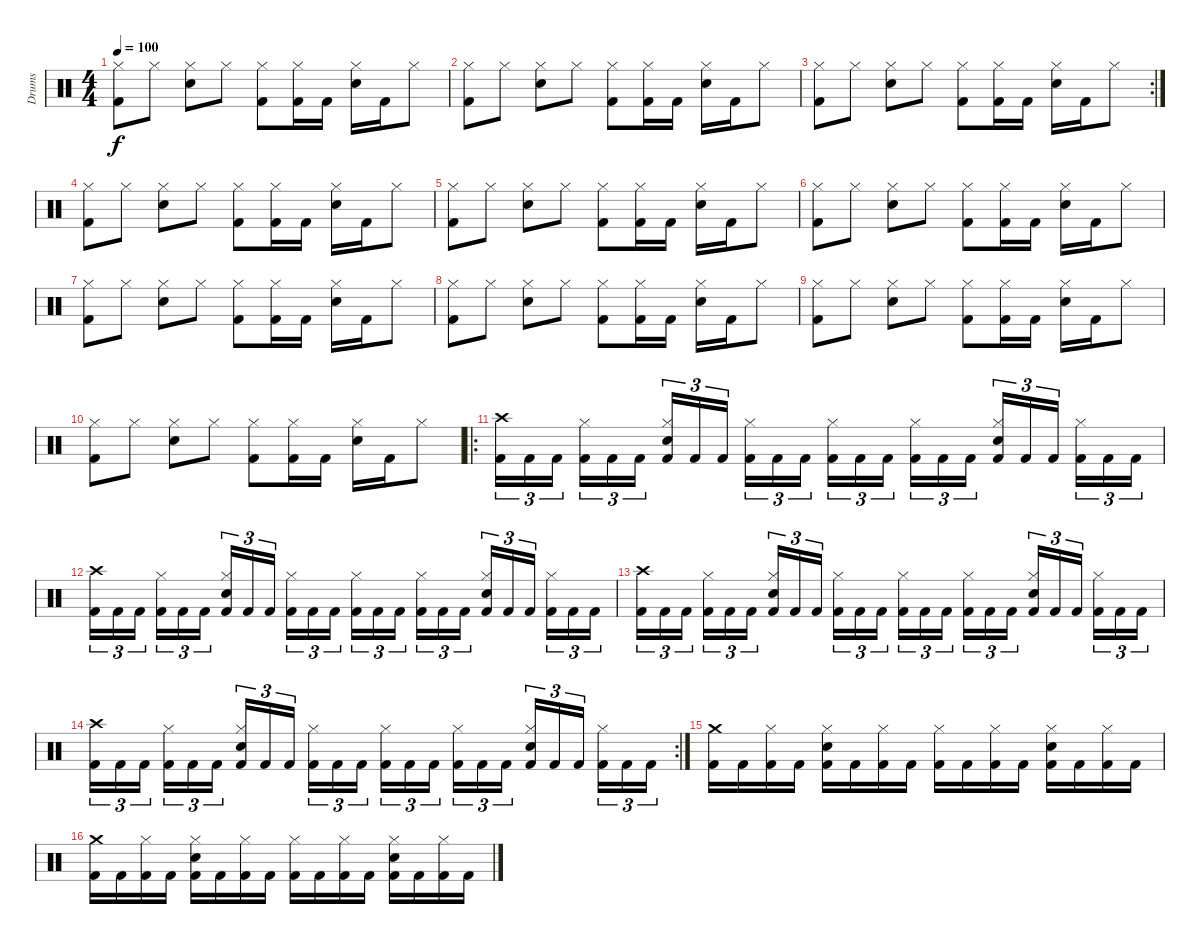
\track ("Drums" "Drums") {instrument percussion}
\staff {score}
\articulation defaults
\ts (4 4)
\tempo 100
\clef neutral
\ks c
("Kick (hit) 2" "Hi-Hat (closed)").8{dy f} "Hi-Hat (closed)".8 ("Hi-Hat (closed)" "Snare (hit) 2").8 "Hi-Hat (closed)".8 ("Kick (hit) 2" "Hi-Hat (closed)").8 ("Kick (hit) 2" "Hi-Hat (closed)").16 "Kick (hit) 2".16 ("Hi-Hat (closed)" "Snare (hit) 2").16 "Kick (hit) 2".16 "Hi-Hat (closed)".8 |
("Kick (hit) 2" "Hi-Hat (closed)").8 "Hi-Hat (closed)".8 ("Hi-Hat (closed)" "Snare (hit) 2").8 "Hi-Hat (closed)".8 ("Kick (hit) 2" "Hi-Hat (closed)").8 ("Kick (hit) 2" "Hi-Hat (closed)").16 "Kick (hit) 2".16 ("Hi-Hat (closed)" "Snare (hit) 2").16 "Kick (hit) 2".16 "Hi-Hat (closed)".8 |
\rc 2
("Kick (hit) 2" "Hi-Hat (closed)").8 "Hi-Hat (closed)".8 ("Hi-Hat (closed)" "Snare (hit) 2").8 "Hi-Hat (closed)".8 ("Kick (hit) 2" "Hi-Hat (closed)").8 ("Kick (hit) 2" "Hi-Hat (closed)").16 "Kick (hit) 2".16 ("Hi-Hat (closed)" "Snare (hit) 2").16 "Kick (hit) 2".16 "Hi-Hat (closed)".8 |
("Kick (hit) 2" "Hi-Hat (closed)").8 "Hi-Hat (closed)".8 ("Hi-Hat (closed)" "Snare (hit) 2").8 "Hi-Hat (closed)".8 ("Kick (hit) 2" "Hi-Hat (closed)").8 ("Kick (hit) 2" "Hi-Hat (closed)").16 "Kick (hit) 2".16 ("Hi-Hat (closed)" "Snare (hit) 2").16 "Kick (hit) 2".16 "Hi-Hat (closed)".8 |
("Kick (hit) 2" "Hi-Hat (closed)").8 "Hi-Hat (closed)".8 ("Hi-Hat (closed)" "Snare (hit) 2").8 "Hi-Hat (closed)".8 ("Kick (hit) 2" "Hi-Hat (closed)").8 ("Kick (hit) 2" "Hi-Hat (closed)").16 "Kick (hit) 2".16 ("Hi-Hat (closed)" "Snare (hit) 2").16 "Kick (hit) 2".16 "Hi-Hat (closed)".8 |
("Kick (hit) 2" "Hi-Hat (closed)").8 "Hi-Hat (closed)".8 ("Hi-Hat (closed)" "Snare (hit) 2").8 "Hi-Hat (closed)".8 ("Kick (hit) 2" "Hi-Hat (closed)").8 ("Kick (hit) 2" "Hi-Hat (closed)").16 "Kick (hit) 2".16 ("Hi-Hat (closed)" "Snare (hit) 2").16 "Kick (hit) 2".16 "Hi-Hat (closed)".8 |
("Kick (hit) 2" "Hi-Hat (closed)").8 "Hi-Hat (closed)".8 ("Hi-Hat (closed)" "Snare (hit) 2").8 "Hi-Hat (closed)".8 ("Kick (hit) 2" "Hi-Hat (closed)").8 ("Kick (hit) 2" "Hi-Hat (closed)").16 "Kick (hit) 2".16 ("Hi-Hat (closed)" "Snare (hit) 2").16 "Kick (hit) 2".16 "Hi-Hat (closed)".8 |
("Kick (hit) 2" "Hi-Hat (closed)").8 "Hi-Hat (closed)".8 ("Hi-Hat (closed)" "Snare (hit) 2").8 "Hi-Hat (closed)".8 ("Kick (hit) 2" "Hi-Hat (closed)").8 ("Kick (hit) 2" "Hi-Hat (closed)").16 "Kick (hit) 2".16 ("Hi-Hat (closed)" "Snare (hit) 2").16 "Kick (hit) 2".16 "Hi-Hat (closed)".8 |
("Kick (hit) 2" "Hi-Hat (closed)").8 "Hi-Hat (closed)".8 ("Hi-Hat (closed)" "Snare (hit) 2").8 "Hi-Hat (closed)".8 ("Kick (hit) 2" "Hi-Hat (closed)").8 ("Kick (hit) 2" "Hi-Hat (closed)").16 "Kick (hit) 2".16 ("Hi-Hat (closed)" "Snare (hit) 2").16 "Kick (hit) 2".16 "Hi-Hat (closed)".8 |
("Kick (hit) 2" "Hi-Hat (closed)").8 "Hi-Hat (closed)".8 ("Hi-Hat (closed)" "Snare (hit) 2").8 "Hi-Hat (closed)".8 ("Kick (hit) 2" "Hi-Hat (closed)").8 ("Kick (hit) 2" "Hi-Hat (closed)").16 "Kick (hit) 2".16 ("Hi-Hat (closed)" "Snare (hit) 2").16 "Kick (hit) 2".16 "Hi-Hat (closed)".8 |
\ro
("Kick (hit) 2" "Crash high (hit)").16{tu (3 2)} "Kick (hit) 2".16{tu (3 2)} "Kick (hit) 2".16{tu (3 2)} ("Kick (hit) 2" "Hi-Hat (closed)").16{tu (3 2)} "Kick (hit) 2".16{tu (3 2)} "Kick (hit) 2".16{tu (3 2)} ("Kick (hit) 2" "Hi-Hat (closed)" "Snare (hit) 2").16{tu (3 2)} "Kick (hit) 2".16{tu (3 2)} "Kick (hit) 2".16{tu (3 2)} ("Kick (hit) 2" "Hi-Hat (closed)").16{tu (3 2)} "Kick (hit) 2".16{tu (3 2)} "Kick (hit) 2".16{tu (3 2)} ("Kick (hit) 2" "Hi-Hat (closed)").16{tu (3 2)} "Kick (hit) 2".16{tu (3 2)} "Kick (hit) 2".16{tu (3 2)} ("Kick (hit) 2" "Hi-Hat (closed)").16{tu (3 2)} "Kick (hit) 2".16{tu (3 2)} "Kick (hit) 2".16{tu (3 2)} ("Kick (hit) 2" "Hi-Hat (closed)" "Snare (hit) 2").16{tu (3 2)} "Kick (hit) 2".16{tu (3 2)} "Kick (hit) 2".16{tu (3 2)} ("Kick (hit) 2" "Hi-Hat (closed)").16{tu (3 2)} "Kick (hit) 2".16{tu (3 2)} "Kick (hit) 2".16{tu (3 2)} |
("Kick (hit) 2" "Crash high (hit)").16{tu (3 2)} "Kick (hit) 2".16{tu (3 2)} "Kick (hit) 2".16{tu (3 2)} ("Kick (hit) 2" "Hi-Hat (closed)").16{tu (3 2)} "Kick (hit) 2".16{tu (3 2)} "Kick (hit) 2".16{tu (3 2)} ("Kick (hit) 2" "Hi-Hat (closed)" "Snare (hit) 2").16{tu (3 2)} "Kick (hit) 2".16{tu (3 2)} "Kick (hit) 2".16{tu (3 2)} ("Kick (hit) 2" "Hi-Hat (closed)").16{tu (3 2)} "Kick (hit) 2".16{tu (3 2)} "Kick (hit) 2".16{tu (3 2)} ("Kick (hit) 2" "Hi-Hat (closed)").16{tu (3 2)} "Kick (hit) 2".16{tu (3 2)} "Kick (hit) 2".16{tu (3 2)} ("Kick (hit) 2" "Hi-Hat (closed)").16{tu (3 2)} "Kick (hit) 2".16{tu (3 2)} "Kick (hit) 2".16{tu (3 2)} ("Kick (hit) 2" "Hi-Hat (closed)" "Snare (hit) 2").16{tu (3 2)} "Kick (hit) 2".16{tu (3 2)} "Kick (hit) 2".16{tu (3 2)} ("Kick (hit) 2" "Hi-Hat (closed)").16{tu (3 2)} "Kick (hit) 2".16{tu (3 2)} "Kick (hit) 2".16{tu (3 2)} |
("Kick (hit) 2" "Crash high (hit)").16{tu (3 2)} "Kick (hit) 2".16{tu (3 2)} "Kick (hit) 2".16{tu (3 2)} ("Kick (hit) 2" "Hi-Hat (closed)").16{tu (3 2)} "Kick (hit) 2".16{tu (3 2)} "Kick (hit) 2".16{tu (3 2)} ("Kick (hit) 2" "Hi-Hat (closed)" "Snare (hit) 2").16{tu (3 2)} "Kick (hit) 2".16{tu (3 2)} "Kick (hit) 2".16{tu (3 2)} ("Kick (hit) 2" "Hi-Hat (closed)").16{tu (3 2)} "Kick (hit) 2".16{tu (3 2)} "Kick (hit) 2".16{tu (3 2)} ("Kick (hit) 2" "Hi-Hat (closed)").16{tu (3 2)} "Kick (hit) 2".16{tu (3 2)} "Kick (hit) 2".16{tu (3 2)} ("Kick (hit) 2" "Hi-Hat (closed)").16{tu (3 2)} "Kick (hit) 2".16{tu (3 2)} "Kick (hit) 2".16{tu (3 2)} ("Kick (hit) 2" "Hi-Hat (closed)" "Snare (hit) 2").16{tu (3 2)} "Kick (hit) 2".16{tu (3 2)} "Kick (hit) 2".16{tu (3 2)} ("Kick (hit) 2" "Hi-Hat (closed)").16{tu (3 2)} "Kick (hit) 2".16{tu (3 2)} "Kick (hit) 2".16{tu (3 2)} |
\rc 2
("Kick (hit) 2" "Crash high (hit)").16{tu (3 2)} "Kick (hit) 2".16{tu (3 2)} "Kick (hit) 2".16{tu (3 2)} ("Kick (hit) 2" "Hi-Hat (closed)").16{tu (3 2)} "Kick (hit) 2".16{tu (3 2)} "Kick (hit) 2".16{tu (3 2)} ("Kick (hit) 2" "Hi-Hat (closed)" "Snare (hit) 2").16{tu (3 2)} "Kick (hit) 2".16{tu (3 2)} "Kick (hit) 2".16{tu (3 2)} ("Kick (hit) 2" "Hi-Hat (closed)").16{tu (3 2)} "Kick (hit) 2".16{tu (3 2)} "Kick (hit) 2".16{tu (3 2)} ("Kick (hit) 2" "Hi-Hat (closed)").16{tu (3 2)} "Kick (hit) 2".16{tu (3 2)} "Kick (hit) 2".16{tu (3 2)} ("Kick (hit) 2" "Hi-Hat (closed)").16{tu (3 2)} "Kick (hit) 2".16{tu (3 2)} "Kick (hit) 2".16{tu (3 2)} ("Kick (hit) 2" "Hi-Hat (closed)" "Snare (hit) 2").16{tu (3 2)} "Kick (hit) 2".16{tu (3 2)} "Kick (hit) 2".16{tu (3 2)} ("Kick (hit) 2" "Hi-Hat (closed)").16{tu (3 2)} "Kick (hit) 2".16{tu (3 2)} "Kick (hit) 2".16{tu (3 2)} |
("Kick (hit) 2" "Crash medium (hit)").16 "Kick (hit) 2".16 ("Kick (hit) 2" "Hi-Hat (closed)").16 "Kick (hit) 2".16 ("Kick (hit) 2" "Hi-Hat (closed)" "Snare (hit) 2").16 "Kick (hit) 2".16 ("Kick (hit) 2" "Hi-Hat (closed)").16 "Kick (hit) 2".16 ("Kick (hit) 2" "Hi-Hat (closed)").16 "Kick (hit) 2".16 ("Kick (hit) 2" "Hi-Hat (closed)").16 "Kick (hit) 2".16 ("Kick (hit) 2" "Hi-Hat (closed)" "Snare (hit) 2").16 "Kick (hit) 2".16 ("Kick (hit) 2" "Hi-Hat (closed)").16 "Kick (hit) 2".16 |
("Kick (hit) 2" "Crash medium (hit)").16 "Kick (hit) 2".16 ("Kick (hit) 2" "Hi-Hat (closed)").16 "Kick (hit) 2".16 ("Kick (hit) 2" "Hi-Hat (closed)" "Snare (hit) 2").16 "Kick (hit) 2".16 ("Kick (hit) 2" "Hi-Hat (closed)").16 "Kick (hit) 2".16 ("Kick (hit) 2" "Hi-Hat (closed)").16 "Kick (hit) 2".16 ("Kick (hit) 2" "Hi-Hat (closed)").16 "Kick (hit) 2".16 ("Kick (hit) 2" "Hi-Hat (closed)" "Snare (hit) 2").16 "Kick (hit) 2".16 ("Kick (hit) 2" "Hi-Hat (closed)").16 "Kick (hit) 2".16
